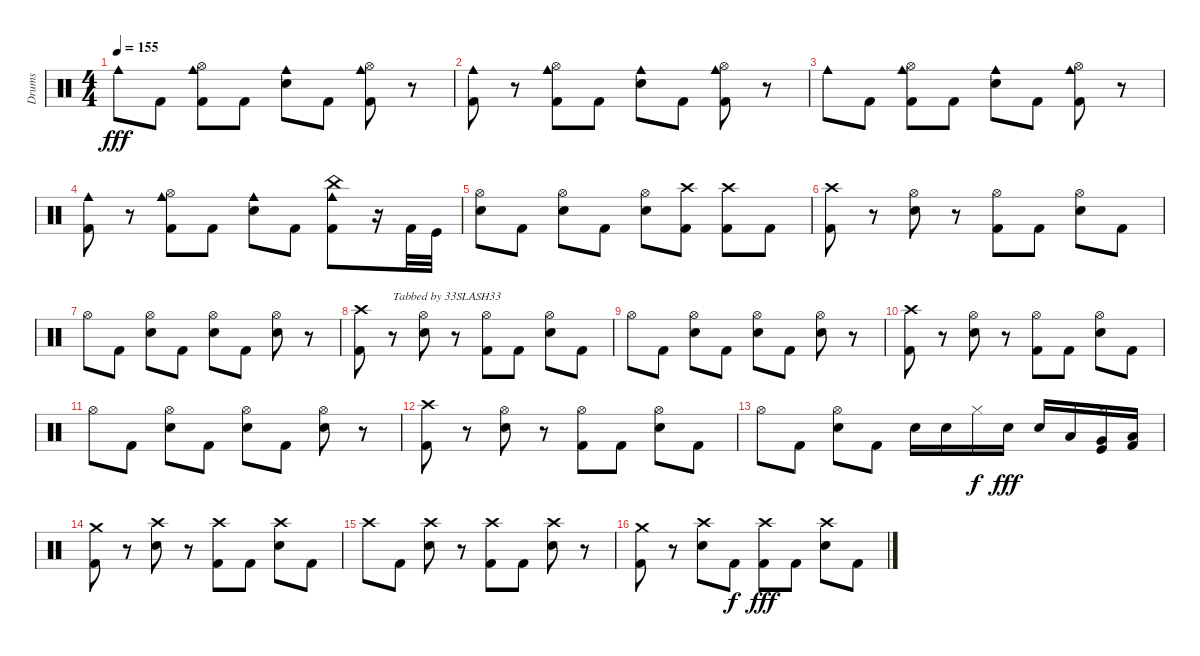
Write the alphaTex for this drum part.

\track ("Drums" "Drums") {instrument percussion}
\staff {score}
\articulation defaults
\ts (4 4)
\tempo 155
\clef neutral
\ks c "Cowbell medium (hit)".8{dy fff} "Kick (hit) 2".8
("Hi-Hat (open)" "Cowbell medium (hit)" "Kick (hit) 2").8 "Kick (hit) 2".8 ("Snare (hit) 2" "Cowbell medium (hit)").8 "Kick (hit) 2".8 ("Hi-Hat (open)" "Cowbell medium (hit)" "Kick (hit) 2").8 r.8 |
("Cowbell medium (hit)" "Kick (hit) 2").8 r.8 ("Hi-Hat (open)" "Cowbell medium (hit)" "Kick (hit) 2").8 "Kick (hit) 2".8 ("Snare (hit) 2" "Cowbell medium (hit)").8 "Kick (hit) 2".8 ("Hi-Hat (open)" "Cowbell medium (hit)" "Kick (hit) 2").8 r.8 |
"Cowbell medium (hit)".8 "Kick (hit) 2".8 ("Hi-Hat (open)" "Cowbell medium (hit)" "Kick (hit) 2").8 "Kick (hit) 2".8 ("Snare (hit) 2" "Cowbell medium (hit)").8 "Kick (hit) 2".8 ("Hi-Hat (open)" "Cowbell medium (hit)" "Kick (hit) 2").8 r.8 |
("Cowbell medium (hit)" "Kick (hit) 2").8 r.8 ("Hi-Hat (open)" "Cowbell medium (hit)" "Kick (hit) 2").8 "Kick (hit) 2".8 ("Snare (hit) 2" "Cowbell medium (hit)").8 "Kick (hit) 2".8 ("China (hit)" "Cowbell medium (hit)" "Kick (hit) 2").8 r.16 "Kick (hit) 2".32 "Kick (hit)".32 |
("Hi-Hat (open)" "Snare (hit) 2").8 "Kick (hit) 2".8 ("Hi-Hat (open)" "Snare (hit) 2").8 "Kick (hit) 2".8 ("Hi-Hat (open)" "Snare (hit) 2").8 ("Crash high (hit)" "Kick (hit) 2").8 ("Crash high (hit)" "Kick (hit) 2").8 "Kick (hit) 2".8 |
("Crash high (hit)" "Kick (hit) 2").8 r.8 ("Hi-Hat (open)" "Snare (hit) 2").8 r.8 ("Hi-Hat (open)" "Kick (hit) 2").8 "Kick (hit) 2".8 ("Hi-Hat (open)" "Snare (hit) 2").8 "Kick (hit) 2".8 |
"Hi-Hat (open)".8 "Kick (hit) 2".8 ("Hi-Hat (open)" "Snare (hit) 2").8 "Kick (hit) 2".8 ("Hi-Hat (open)" "Snare (hit) 2").8 "Kick (hit) 2".8 ("Hi-Hat (open)" "Snare (hit) 2").8 r.8 |
("Crash high (hit)" "Kick (hit) 2").8 r.8{txt "Tabbed by 33SLASH33"} ("Hi-Hat (open)" "Snare (hit) 2").8 r.8 ("Hi-Hat (open)" "Kick (hit) 2").8 "Kick (hit) 2".8 ("Hi-Hat (open)" "Snare (hit) 2").8 "Kick (hit) 2".8 |
"Hi-Hat (open)".8 "Kick (hit) 2".8 ("Hi-Hat (open)" "Snare (hit) 2").8 "Kick (hit) 2".8 ("Hi-Hat (open)" "Snare (hit) 2").8 "Kick (hit) 2".8 ("Hi-Hat (open)" "Snare (hit) 2").8 r.8 |
("Crash high (hit)" "Kick (hit) 2").8 r.8 ("Hi-Hat (open)" "Snare (hit) 2").8 r.8 ("Hi-Hat (open)" "Kick (hit) 2").8 "Kick (hit) 2".8 ("Hi-Hat (open)" "Snare (hit) 2").8 "Kick (hit) 2".8 |
"Hi-Hat (open)".8 "Kick (hit) 2".8 ("Hi-Hat (open)" "Snare (hit) 2").8 "Kick (hit) 2".8 ("Hi-Hat (open)" "Snare (hit) 2").8 "Kick (hit) 2".8 ("Hi-Hat (open)" "Snare (hit) 2").8 r.8 |
("Crash high (hit)" "Kick (hit) 2").8 r.8 ("Hi-Hat (open)" "Snare (hit) 2").8 r.8 ("Hi-Hat (open)" "Kick (hit) 2").8 "Kick (hit) 2".8 ("Hi-Hat (open)" "Snare (hit) 2").8 "Kick (hit) 2".8 |
"Hi-Hat (open)".8 "Kick (hit) 2".8 ("Hi-Hat (open)" "Snare (hit) 2").8 "Kick (hit) 2".8 "Snare (hit) 2".16 "Snare (hit) 2".16 "Hi-Hat (closed)".16{dy f} "Snare (hit) 2".16{dy fff} "Snare (hit) 2".16 "Low Tom (hit)".16 ("Hi-Hat (closed)" "Very Low Tom (hit)" "Kick (hit)").16 ("Low Floor Tom (hit)" "Kick (hit) 2").16 |
("Crash medium (hit)" "Kick (hit) 2").8 r.8 ("Crash high (hit)" "Snare (hit) 2").8 r.8 ("Crash high (hit)" "Kick (hit) 2").8 "Kick (hit) 2".8 ("Crash high (hit)" "Snare (hit) 2").8 "Kick (hit) 2".8 |
"Crash high (hit)".8 "Kick (hit) 2".8 ("Crash high (hit)" "Snare (hit) 2").8 r.8 ("Crash high (hit)" "Kick (hit) 2").8 "Kick (hit) 2".8 ("Crash high (hit)" "Snare (hit) 2").8 r.8 |
("Crash medium (hit)" "Kick (hit) 2").8 r.8 ("Crash high (hit)" "Snare (hit) 2").8 "Kick (hit) 2".8{dy f} ("Crash high (hit)" "Kick (hit) 2").8{dy fff} "Kick (hit) 2".8 ("Crash high (hit)" "Snare (hit) 2").8 "Kick (hit) 2".8
